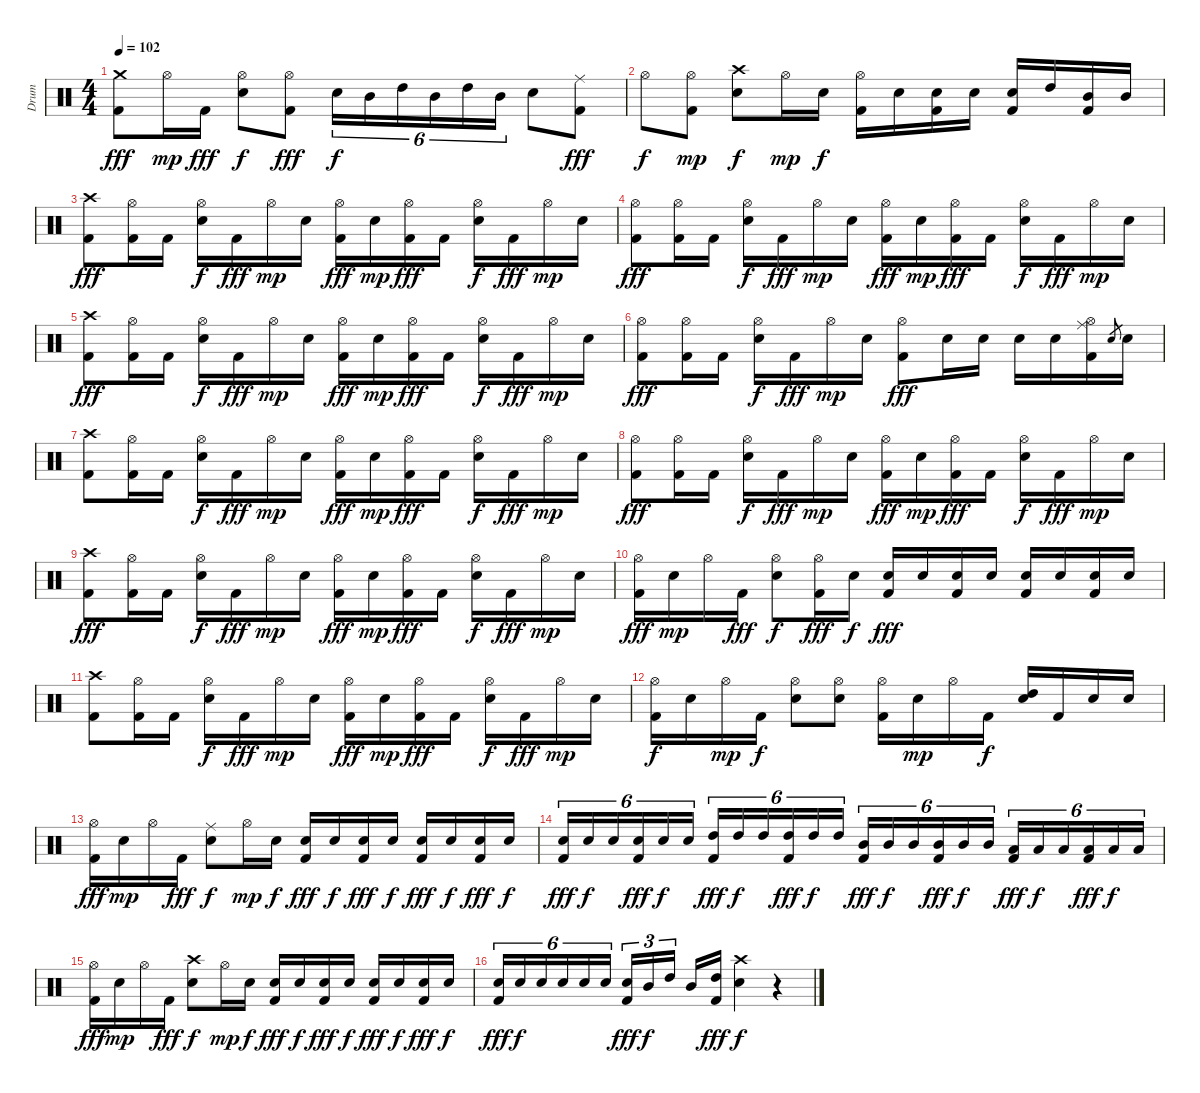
\track ("Drum" "Drum") {instrument percussion}
\staff {score}
\articulation defaults
\ts (4 4)
\tempo 102
\clef neutral
\ks c
("Crash medium (hit)" "Kick (hit) 2").8{dy fff} "Hi-Hat (open)".16{dy mp} "Kick (hit) 2".16{dy fff} ("Hi-Hat (open)" "Electric Snare (hit)").8{dy f} ("Hi-Hat (open)" "Kick (hit) 2").8{dy fff} "Electric Snare (hit)".16{tu (6 4) dy f} "Mid Tom (hit)".16{tu (6 4)} "High Tom (hit)".16{tu (6 4)} "Mid Tom (hit)".16{tu (6 4)} "High Tom (hit)".16{tu (6 4)} "Mid Tom (hit)".16{tu (6 4)} "Electric Snare (hit)".8 ("Ride (middle)" "Kick (hit) 2").8{dy fff} |
"Hi-Hat (open)".8{dy f} ("Hi-Hat (open)" "Kick (hit) 2").8{dy mp} ("Crash high (hit)" "Electric Snare (hit)").8{dy f} "Hi-Hat (open)".16{dy mp} "Electric Snare (hit)".16{dy f} ("Hi-Hat (open)" "Kick (hit) 2").16 "Electric Snare (hit)".16 ("Electric Snare (hit)" "Kick (hit) 2").16 "Electric Snare (hit)".16 ("Electric Snare (hit)" "Kick (hit) 2").16 "High Tom (hit)".16 ("Mid Tom (hit)" "Kick (hit) 2").16 "Mid Tom (hit)".16 |
("Crash high (hit)" "Kick (hit) 2").8{dy fff} ("Hi-Hat (open)" "Kick (hit) 2").16 "Kick (hit) 2".16 ("Hi-Hat (open)" "Electric Snare (hit)").16{dy f} "Kick (hit) 2".16{dy fff} "Hi-Hat (open)".16{dy mp} "Electric Snare (hit)".16 ("Hi-Hat (open)" "Kick (hit) 2").16{dy fff} "Electric Snare (hit)".16{dy mp} ("Hi-Hat (open)" "Kick (hit) 2").16{dy fff} "Kick (hit) 2".16 ("Hi-Hat (open)" "Electric Snare (hit)").16{dy f} "Kick (hit) 2".16{dy fff} "Hi-Hat (open)".16{dy mp} "Electric Snare (hit)".16 |
("Hi-Hat (open)" "Kick (hit) 2").8{dy fff} ("Hi-Hat (open)" "Kick (hit) 2").16 "Kick (hit) 2".16 ("Hi-Hat (open)" "Electric Snare (hit)").16{dy f} "Kick (hit) 2".16{dy fff} "Hi-Hat (open)".16{dy mp} "Electric Snare (hit)".16 ("Hi-Hat (open)" "Kick (hit) 2").16{dy fff} "Electric Snare (hit)".16{dy mp} ("Hi-Hat (open)" "Kick (hit) 2").16{dy fff} "Kick (hit) 2".16 ("Hi-Hat (open)" "Electric Snare (hit)").16{dy f} "Kick (hit) 2".16{dy fff} "Hi-Hat (open)".16{dy mp} "Electric Snare (hit)".16 |
("Crash high (hit)" "Kick (hit) 2").8{dy fff} ("Hi-Hat (open)" "Kick (hit) 2").16 "Kick (hit) 2".16 ("Hi-Hat (open)" "Electric Snare (hit)").16{dy f} "Kick (hit) 2".16{dy fff} "Hi-Hat (open)".16{dy mp} "Electric Snare (hit)".16 ("Hi-Hat (open)" "Kick (hit) 2").16{dy fff} "Electric Snare (hit)".16{dy mp} ("Hi-Hat (open)" "Kick (hit) 2").16{dy fff} "Kick (hit) 2".16 ("Hi-Hat (open)" "Electric Snare (hit)").16{dy f} "Kick (hit) 2".16{dy fff} "Hi-Hat (open)".16{dy mp} "Electric Snare (hit)".16 |
("Hi-Hat (open)" "Kick (hit) 2").8{dy fff} ("Hi-Hat (open)" "Kick (hit) 2").16 "Kick (hit) 2".16 ("Hi-Hat (open)" "Electric Snare (hit)").16{dy f} "Kick (hit) 2".16{dy fff} "Hi-Hat (open)".16{dy mp} "Electric Snare (hit)".16 ("Hi-Hat (open)" "Kick (hit) 2").8{dy fff} "Electric Snare (hit)".16 "Electric Snare (hit)".16 "Electric Snare (hit)".16 "Electric Snare (hit)".16 ("Ride (middle)" "Hi-Hat (open)" "Kick (hit) 2").16 "Electric Snare (hit)".8{gr} "Electric Snare (hit)".16 |
("Crash high (hit)" "Kick (hit) 2").8 ("Hi-Hat (open)" "Kick (hit) 2").16 "Kick (hit) 2".16 ("Hi-Hat (open)" "Electric Snare (hit)").16{dy f} "Kick (hit) 2".16{dy fff} "Hi-Hat (open)".16{dy mp} "Electric Snare (hit)".16 ("Hi-Hat (open)" "Kick (hit) 2").16{dy fff} "Electric Snare (hit)".16{dy mp} ("Hi-Hat (open)" "Kick (hit) 2").16{dy fff} "Kick (hit) 2".16 ("Hi-Hat (open)" "Electric Snare (hit)").16{dy f} "Kick (hit) 2".16{dy fff} "Hi-Hat (open)".16{dy mp} "Electric Snare (hit)".16 |
("Hi-Hat (open)" "Kick (hit) 2").8{dy fff} ("Hi-Hat (open)" "Kick (hit) 2").16 "Kick (hit) 2".16 ("Hi-Hat (open)" "Electric Snare (hit)").16{dy f} "Kick (hit) 2".16{dy fff} "Hi-Hat (open)".16{dy mp} "Electric Snare (hit)".16 ("Hi-Hat (open)" "Kick (hit) 2").16{dy fff} "Electric Snare (hit)".16{dy mp} ("Hi-Hat (open)" "Kick (hit) 2").16{dy fff} "Kick (hit) 2".16 ("Hi-Hat (open)" "Electric Snare (hit)").16{dy f} "Kick (hit) 2".16{dy fff} "Hi-Hat (open)".16{dy mp} "Electric Snare (hit)".16 |
("Crash high (hit)" "Kick (hit) 2").8{dy fff} ("Hi-Hat (open)" "Kick (hit) 2").16 "Kick (hit) 2".16 ("Hi-Hat (open)" "Electric Snare (hit)").16{dy f} "Kick (hit) 2".16{dy fff} "Hi-Hat (open)".16{dy mp} "Electric Snare (hit)".16 ("Hi-Hat (open)" "Kick (hit) 2").16{dy fff} "Electric Snare (hit)".16{dy mp} ("Hi-Hat (open)" "Kick (hit) 2").16{dy fff} "Kick (hit) 2".16 ("Hi-Hat (open)" "Electric Snare (hit)").16{dy f} "Kick (hit) 2".16{dy fff} "Hi-Hat (open)".16{dy mp} "Electric Snare (hit)".16 |
("Hi-Hat (open)" "Kick (hit) 2").16{dy fff} "Electric Snare (hit)".16{dy mp} "Hi-Hat (open)".16 "Kick (hit) 2".16{dy fff} ("Hi-Hat (open)" "Electric Snare (hit)").8{dy f} ("Hi-Hat (open)" "Kick (hit) 2").16{dy fff} "Electric Snare (hit)".16{dy f} ("Electric Snare (hit)" "Kick (hit) 2").16{dy fff} "Electric Snare (hit)".16 ("Electric Snare (hit)" "Kick (hit) 2").16 "Electric Snare (hit)".16 ("Electric Snare (hit)" "Kick (hit) 2").16 "Electric Snare (hit)".16 ("Electric Snare (hit)" "Kick (hit) 2").16 "Electric Snare (hit)".16 |
("Crash high (hit)" "Kick (hit) 2").8 ("Hi-Hat (open)" "Kick (hit) 2").16 "Kick (hit) 2".16 ("Hi-Hat (open)" "Electric Snare (hit)").16{dy f} "Kick (hit) 2".16{dy fff} "Hi-Hat (open)".16{dy mp} "Electric Snare (hit)".16 ("Hi-Hat (open)" "Kick (hit) 2").16{dy fff} "Electric Snare (hit)".16{dy mp} ("Hi-Hat (open)" "Kick (hit) 2").16{dy fff} "Kick (hit) 2".16 ("Hi-Hat (open)" "Electric Snare (hit)").16{dy f} "Kick (hit) 2".16{dy fff} "Hi-Hat (open)".16{dy mp} "Electric Snare (hit)".16 |
("Hi-Hat (open)" "Kick (hit) 2").16{dy f} "Electric Snare (hit)".16 "Hi-Hat (open)".16{dy mp} "Kick (hit) 2".16{dy f} ("Hi-Hat (open)" "Electric Snare (hit)").8 ("Hi-Hat (open)" "Electric Snare (hit)").8 ("Hi-Hat (open)" "Kick (hit) 2").16 "Electric Snare (hit)".16{dy mp} "Hi-Hat (open)".16 "Kick (hit) 2".16{dy f} ("High Tom (hit)" "Electric Snare (hit)").16 "Kick (hit) 2".16 "Electric Snare (hit)".16 "Electric Snare (hit)".16 |
("Hi-Hat (open)" "Kick (hit) 2").16{dy fff} "Electric Snare (hit)".16{dy mp} "Hi-Hat (open)".16 "Kick (hit) 2".16{dy fff} ("Ride (middle)" "Electric Snare (hit)").8{dy f} "Hi-Hat (open)".16{dy mp} "Electric Snare (hit)".16{dy f} ("Electric Snare (hit)" "Kick (hit) 2").16{dy fff} "Electric Snare (hit)".16{dy f} ("Electric Snare (hit)" "Kick (hit) 2").16{dy fff} "Electric Snare (hit)".16{dy f} ("Electric Snare (hit)" "Kick (hit) 2").16{dy fff} "Electric Snare (hit)".16{dy f} ("Electric Snare (hit)" "Kick (hit) 2").16{dy fff} "Electric Snare (hit)".16{dy f} |
("Electric Snare (hit)" "Kick (hit) 2").16{tu (6 4) dy fff} "Electric Snare (hit)".16{tu (6 4) dy f} "Electric Snare (hit)".16{tu (6 4)} ("Electric Snare (hit)" "Kick (hit) 2").16{tu (6 4) dy fff} "Electric Snare (hit)".16{tu (6 4) dy f} "Electric Snare (hit)".16{tu (6 4)} ("High Tom (hit)" "Kick (hit) 2").16{tu (6 4) dy fff} "High Tom (hit)".16{tu (6 4) dy f} "High Tom (hit)".16{tu (6 4)} ("High Tom (hit)" "Kick (hit) 2").16{tu (6 4) dy fff} "High Tom (hit)".16{tu (6 4) dy f} "High Tom (hit)".16{tu (6 4)} ("Mid Tom (hit)" "Kick (hit) 2").16{tu (6 4) dy fff} "Mid Tom (hit)".16{tu (6 4) dy f} "Mid Tom (hit)".16{tu (6 4)} ("Mid Tom (hit)" "Kick (hit) 2").16{tu (6 4) dy fff} "Mid Tom (hit)".16{tu (6 4) dy f} "Mid Tom (hit)".16{tu (6 4)} ("Low Tom (hit)" "Kick (hit) 2").16{tu (6 4) dy fff} "Low Tom (hit)".16{tu (6 4) dy f} "Low Tom (hit)".16{tu (6 4)} ("Low Tom (hit)" "Kick (hit) 2").16{tu (6 4) dy fff} "Low Tom (hit)".16{tu (6 4) dy f} "Low Tom (hit)".16{tu (6 4)} |
("Hi-Hat (open)" "Kick (hit) 2").16{dy fff} "Electric Snare (hit)".16{dy mp} "Hi-Hat (open)".16 "Kick (hit) 2".16{dy fff} ("Crash high (hit)" "Electric Snare (hit)").8{dy f} "Hi-Hat (open)".16{dy mp} "Electric Snare (hit)".16{dy f} ("Electric Snare (hit)" "Kick (hit) 2").16{dy fff} "Electric Snare (hit)".16{dy f} ("Electric Snare (hit)" "Kick (hit) 2").16{dy fff} "Electric Snare (hit)".16{dy f} ("Electric Snare (hit)" "Kick (hit) 2").16{dy fff} "Electric Snare (hit)".16{dy f} ("Electric Snare (hit)" "Kick (hit) 2").16{dy fff} "Electric Snare (hit)".16{dy f} |
("Electric Snare (hit)" "Kick (hit) 2").16{tu (6 4) dy fff} "Electric Snare (hit)".16{tu (6 4) dy f} "Electric Snare (hit)".16{tu (6 4)} "Electric Snare (hit)".16{tu (6 4)} "Electric Snare (hit)".16{tu (6 4)} "Electric Snare (hit)".16{tu (6 4)} ("Electric Snare (hit)" "Kick (hit) 2").16{tu (3 2) dy fff} "Mid Tom (hit)".16{tu (3 2) dy f} "High Tom (hit)".16{tu (3 2)} "Mid Tom (hit)".16 ("High Tom (hit)" "Kick (hit) 2").16{dy fff} ("Crash high (hit)" "Electric Snare (hit)").4{dy f} r.4
